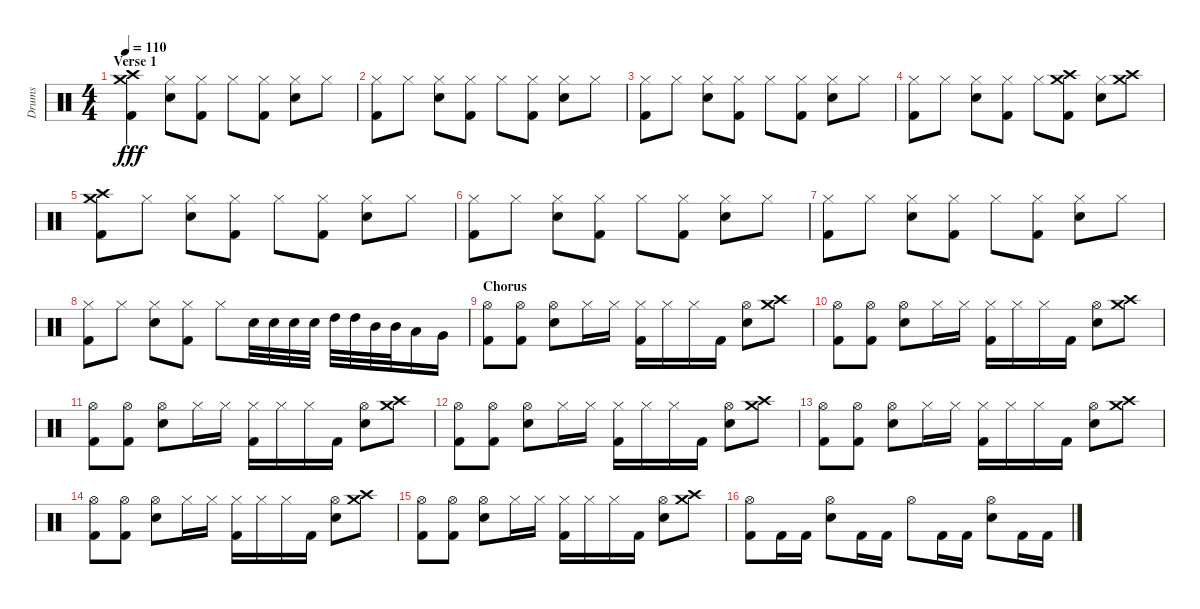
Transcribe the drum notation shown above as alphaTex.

\track ("Drums" "Drums") {instrument percussion}
\staff {score}
\articulation defaults
\ts (4 4)
\section ("" "Verse 1")
\tempo 110
\clef neutral
\ks c
("Crash high (hit)" "Crash medium (hit)" "Kick (hit) 2").4{dy fff} ("Hi-Hat (closed)" "Electric Snare (hit)").8 ("Hi-Hat (closed)" "Kick (hit) 2").8 "Hi-Hat (closed)".8 ("Hi-Hat (closed)" "Kick (hit) 2").8 ("Hi-Hat (closed)" "Electric Snare (hit)").8 "Hi-Hat (closed)".8 |
("Hi-Hat (closed)" "Kick (hit) 2").8 "Hi-Hat (closed)".8 ("Hi-Hat (closed)" "Electric Snare (hit)").8 ("Hi-Hat (closed)" "Kick (hit) 2").8 "Hi-Hat (closed)".8 ("Hi-Hat (closed)" "Kick (hit) 2").8 ("Hi-Hat (closed)" "Electric Snare (hit)").8 "Hi-Hat (closed)".8 |
("Hi-Hat (closed)" "Kick (hit) 2").8 "Hi-Hat (closed)".8 ("Hi-Hat (closed)" "Electric Snare (hit)").8 ("Hi-Hat (closed)" "Kick (hit) 2").8 "Hi-Hat (closed)".8 ("Hi-Hat (closed)" "Kick (hit) 2").8 ("Hi-Hat (closed)" "Electric Snare (hit)").8 "Hi-Hat (closed)".8 |
("Hi-Hat (closed)" "Kick (hit) 2").8 "Hi-Hat (closed)".8 ("Hi-Hat (closed)" "Electric Snare (hit)").8 ("Hi-Hat (closed)" "Kick (hit) 2").8 "Hi-Hat (closed)".8 ("Crash high (hit)" "Crash medium (hit)" "Kick (hit) 2").8 ("Hi-Hat (closed)" "Electric Snare (hit)").8 ("Crash high (hit)" "Crash medium (hit)").8 |
("Crash high (hit)" "Crash medium (hit)" "Kick (hit) 2").8 "Hi-Hat (closed)".8 ("Hi-Hat (closed)" "Electric Snare (hit)").8 ("Hi-Hat (closed)" "Kick (hit) 2").8 "Hi-Hat (closed)".8 ("Hi-Hat (closed)" "Kick (hit) 2").8 ("Hi-Hat (closed)" "Electric Snare (hit)").8 "Hi-Hat (closed)".8 |
("Hi-Hat (closed)" "Kick (hit) 2").8 "Hi-Hat (closed)".8 ("Hi-Hat (closed)" "Electric Snare (hit)").8 ("Hi-Hat (closed)" "Kick (hit) 2").8 "Hi-Hat (closed)".8 ("Hi-Hat (closed)" "Kick (hit) 2").8 ("Hi-Hat (closed)" "Electric Snare (hit)").8 "Hi-Hat (closed)".8 |
("Hi-Hat (closed)" "Kick (hit) 2").8 "Hi-Hat (closed)".8 ("Hi-Hat (closed)" "Electric Snare (hit)").8 ("Hi-Hat (closed)" "Kick (hit) 2").8 "Hi-Hat (closed)".8 ("Hi-Hat (closed)" "Kick (hit) 2").8 ("Hi-Hat (closed)" "Electric Snare (hit)").8 "Hi-Hat (closed)".8 |
("Hi-Hat (closed)" "Kick (hit) 2").8 "Hi-Hat (closed)".8 ("Hi-Hat (closed)" "Electric Snare (hit)").8 ("Hi-Hat (closed)" "Kick (hit) 2").8 "Hi-Hat (closed)".8 "Electric Snare (hit)".32 "Electric Snare (hit)".32 "Electric Snare (hit)".32 "Electric Snare (hit)".32 "High Tom (hit)".32 "High Tom (hit)".32 "Mid Tom (hit)".32 "Mid Tom (hit)".32 "Low Tom (hit)".16 "Very Low Tom (hit)".16 |
\section ("" "Chorus")
("Hi-Hat (open)" "Kick (hit) 2").8 ("Hi-Hat (open)" "Kick (hit) 2").8 ("Hi-Hat (open)" "Electric Snare (hit)").8 "Hi-Hat (closed)".16 "Hi-Hat (closed)".16 ("Hi-Hat (closed)" "Kick (hit) 2").16 "Hi-Hat (closed)".16 "Hi-Hat (closed)".16 "Kick (hit) 2".16 ("Hi-Hat (open)" "Electric Snare (hit)").8 ("Crash high (hit)" "Crash medium (hit)").8 |
("Hi-Hat (open)" "Kick (hit) 2").8 ("Hi-Hat (open)" "Kick (hit) 2").8 ("Hi-Hat (open)" "Electric Snare (hit)").8 "Hi-Hat (closed)".16 "Hi-Hat (closed)".16 ("Hi-Hat (closed)" "Kick (hit) 2").16 "Hi-Hat (closed)".16 "Hi-Hat (closed)".16 "Kick (hit) 2".16 ("Hi-Hat (open)" "Electric Snare (hit)").8 ("Crash high (hit)" "Crash medium (hit)").8 |
("Hi-Hat (open)" "Kick (hit) 2").8 ("Hi-Hat (open)" "Kick (hit) 2").8 ("Hi-Hat (open)" "Electric Snare (hit)").8 "Hi-Hat (closed)".16 "Hi-Hat (closed)".16 ("Hi-Hat (closed)" "Kick (hit) 2").16 "Hi-Hat (closed)".16 "Hi-Hat (closed)".16 "Kick (hit) 2".16 ("Hi-Hat (open)" "Electric Snare (hit)").8 ("Crash high (hit)" "Crash medium (hit)").8 |
("Hi-Hat (open)" "Kick (hit) 2").8 ("Hi-Hat (open)" "Kick (hit) 2").8 ("Hi-Hat (open)" "Electric Snare (hit)").8 "Hi-Hat (closed)".16 "Hi-Hat (closed)".16 ("Hi-Hat (closed)" "Kick (hit) 2").16 "Hi-Hat (closed)".16 "Hi-Hat (closed)".16 "Kick (hit) 2".16 ("Hi-Hat (open)" "Electric Snare (hit)").8 ("Crash high (hit)" "Crash medium (hit)").8 |
("Hi-Hat (open)" "Kick (hit) 2").8 ("Hi-Hat (open)" "Kick (hit) 2").8 ("Hi-Hat (open)" "Electric Snare (hit)").8 "Hi-Hat (closed)".16 "Hi-Hat (closed)".16 ("Hi-Hat (closed)" "Kick (hit) 2").16 "Hi-Hat (closed)".16 "Hi-Hat (closed)".16 "Kick (hit) 2".16 ("Hi-Hat (open)" "Electric Snare (hit)").8 ("Crash high (hit)" "Crash medium (hit)").8 |
("Hi-Hat (open)" "Kick (hit) 2").8 ("Hi-Hat (open)" "Kick (hit) 2").8 ("Hi-Hat (open)" "Electric Snare (hit)").8 "Hi-Hat (closed)".16 "Hi-Hat (closed)".16 ("Hi-Hat (closed)" "Kick (hit) 2").16 "Hi-Hat (closed)".16 "Hi-Hat (closed)".16 "Kick (hit) 2".16 ("Hi-Hat (open)" "Electric Snare (hit)").8 ("Crash high (hit)" "Crash medium (hit)").8 |
("Hi-Hat (open)" "Kick (hit) 2").8 ("Hi-Hat (open)" "Kick (hit) 2").8 ("Hi-Hat (open)" "Electric Snare (hit)").8 "Hi-Hat (closed)".16 "Hi-Hat (closed)".16 ("Hi-Hat (closed)" "Kick (hit) 2").16 "Hi-Hat (closed)".16 "Hi-Hat (closed)".16 "Kick (hit) 2".16 ("Hi-Hat (open)" "Electric Snare (hit)").8 ("Crash high (hit)" "Crash medium (hit)").8 |
("Hi-Hat (open)" "Kick (hit) 2").8 "Kick (hit) 2".16 "Kick (hit) 2".16 ("Hi-Hat (open)" "Electric Snare (hit)").8 "Kick (hit) 2".16 "Kick (hit) 2".16 "Hi-Hat (open)".8 "Kick (hit) 2".16 "Kick (hit) 2".16 ("Hi-Hat (open)" "Electric Snare (hit)").8 "Kick (hit) 2".16 "Kick (hit) 2".16
